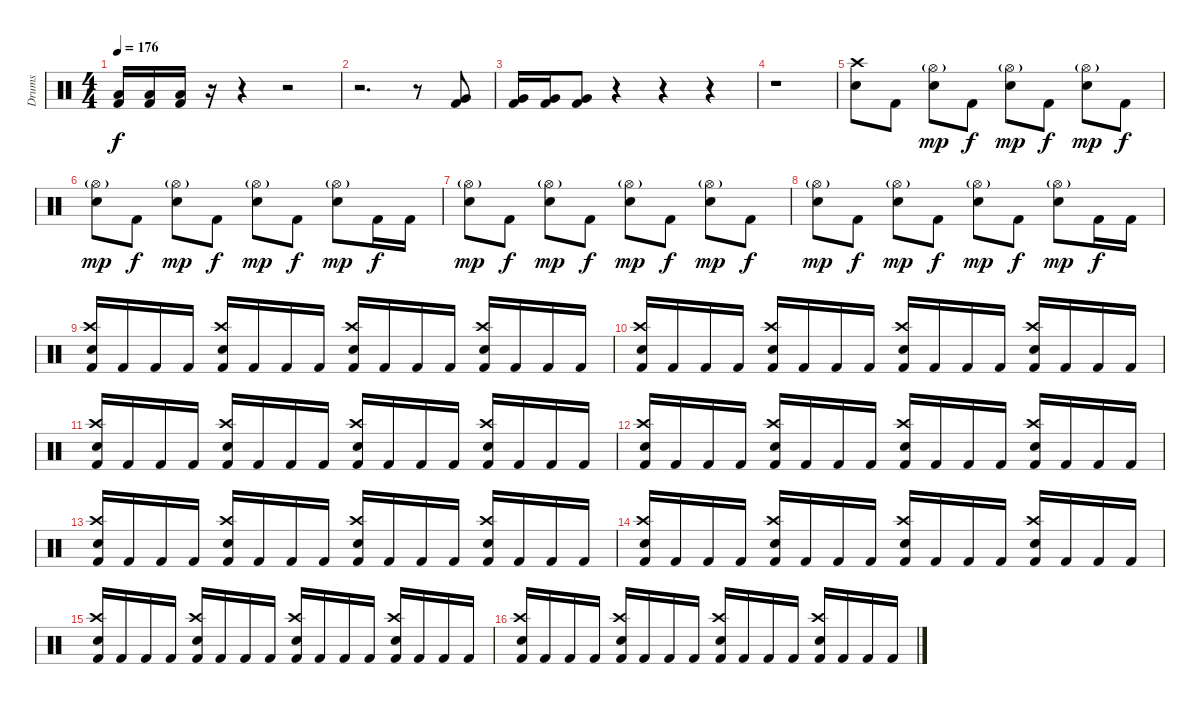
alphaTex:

\track ("Drums" "Drums") {instrument percussion}
\staff {score}
\articulation defaults
\ts (4 4)
\tempo 176
\clef neutral
\ks c
("Low Tom (hit)" "Kick (hit) 2").16{dy f} ("Low Tom (hit)" "Kick (hit) 2").16 ("Low Tom (hit)" "Kick (hit) 2").16 r.16 r.4 r.2 |
r.2{d} r.8 ("Very Low Tom (hit)" "Kick (hit) 2").8 |
("Very Low Tom (hit)" "Kick (hit) 2").16 ("Very Low Tom (hit)" "Kick (hit) 2").16 ("Very Low Tom (hit)" "Kick (hit) 2").8 r.4 r.4 r.4 |
r.1 |
("Crash high (hit)" "Electric Snare (hit)").8 "Kick (hit) 2".8 ("Hi-Hat (open)"{g} "Electric Snare (hit)").8{dy mp} "Kick (hit) 2".8{dy f} ("Hi-Hat (open)"{g} "Electric Snare (hit)").8{dy mp} "Kick (hit) 2".8{dy f} ("Hi-Hat (open)"{g} "Electric Snare (hit)").8{dy mp} "Kick (hit) 2".8{dy f} |
("Hi-Hat (open)"{g} "Electric Snare (hit)").8{dy mp} "Kick (hit) 2".8{dy f} ("Hi-Hat (open)"{g} "Electric Snare (hit)").8{dy mp} "Kick (hit) 2".8{dy f} ("Hi-Hat (open)"{g} "Electric Snare (hit)").8{dy mp} "Kick (hit) 2".8{dy f} ("Hi-Hat (open)"{g} "Electric Snare (hit)").8{dy mp} "Kick (hit) 2".16{dy f} "Kick (hit) 2".16 |
("Hi-Hat (open)"{g} "Electric Snare (hit)").8{dy mp} "Kick (hit) 2".8{dy f} ("Hi-Hat (open)"{g} "Electric Snare (hit)").8{dy mp} "Kick (hit) 2".8{dy f} ("Hi-Hat (open)"{g} "Electric Snare (hit)").8{dy mp} "Kick (hit) 2".8{dy f} ("Hi-Hat (open)"{g} "Electric Snare (hit)").8{dy mp} "Kick (hit) 2".8{dy f} |
("Hi-Hat (open)"{g} "Electric Snare (hit)").8{dy mp} "Kick (hit) 2".8{dy f} ("Hi-Hat (open)"{g} "Electric Snare (hit)").8{dy mp} "Kick (hit) 2".8{dy f} ("Hi-Hat (open)"{g} "Electric Snare (hit)").8{dy mp} "Kick (hit) 2".8{dy f} ("Hi-Hat (open)"{g} "Electric Snare (hit)").8{dy mp} "Kick (hit) 2".16{dy f} "Kick (hit) 2".16 |
("Crash high (hit)" "Electric Snare (hit)" "Kick (hit) 2").16 "Kick (hit) 2".16 "Kick (hit) 2".16 "Kick (hit) 2".16 ("Crash high (hit)" "Electric Snare (hit)" "Kick (hit) 2").16 "Kick (hit) 2".16 "Kick (hit) 2".16 "Kick (hit) 2".16 ("Crash high (hit)" "Electric Snare (hit)" "Kick (hit) 2").16 "Kick (hit) 2".16 "Kick (hit) 2".16 "Kick (hit) 2".16 ("Crash high (hit)" "Electric Snare (hit)" "Kick (hit) 2").16 "Kick (hit) 2".16 "Kick (hit) 2".16 "Kick (hit) 2".16 |
("Crash high (hit)" "Electric Snare (hit)" "Kick (hit) 2").16 "Kick (hit) 2".16 "Kick (hit) 2".16 "Kick (hit) 2".16 ("Crash high (hit)" "Electric Snare (hit)" "Kick (hit) 2").16 "Kick (hit) 2".16 "Kick (hit) 2".16 "Kick (hit) 2".16 ("Crash high (hit)" "Electric Snare (hit)" "Kick (hit) 2").16 "Kick (hit) 2".16 "Kick (hit) 2".16 "Kick (hit) 2".16 ("Crash high (hit)" "Electric Snare (hit)" "Kick (hit) 2").16 "Kick (hit) 2".16 "Kick (hit) 2".16 "Kick (hit) 2".16 |
("Crash high (hit)" "Electric Snare (hit)" "Kick (hit) 2").16 "Kick (hit) 2".16 "Kick (hit) 2".16 "Kick (hit) 2".16 ("Crash high (hit)" "Electric Snare (hit)" "Kick (hit) 2").16 "Kick (hit) 2".16 "Kick (hit) 2".16 "Kick (hit) 2".16 ("Crash high (hit)" "Electric Snare (hit)" "Kick (hit) 2").16 "Kick (hit) 2".16 "Kick (hit) 2".16 "Kick (hit) 2".16 ("Crash high (hit)" "Electric Snare (hit)" "Kick (hit) 2").16 "Kick (hit) 2".16 "Kick (hit) 2".16 "Kick (hit) 2".16 |
("Crash high (hit)" "Electric Snare (hit)" "Kick (hit) 2").16 "Kick (hit) 2".16 "Kick (hit) 2".16 "Kick (hit) 2".16 ("Crash high (hit)" "Electric Snare (hit)" "Kick (hit) 2").16 "Kick (hit) 2".16 "Kick (hit) 2".16 "Kick (hit) 2".16 ("Crash high (hit)" "Electric Snare (hit)" "Kick (hit) 2").16 "Kick (hit) 2".16 "Kick (hit) 2".16 "Kick (hit) 2".16 ("Crash high (hit)" "Electric Snare (hit)" "Kick (hit) 2").16 "Kick (hit) 2".16 "Kick (hit) 2".16 "Kick (hit) 2".16 |
("Crash high (hit)" "Electric Snare (hit)" "Kick (hit) 2").16 "Kick (hit) 2".16 "Kick (hit) 2".16 "Kick (hit) 2".16 ("Crash high (hit)" "Electric Snare (hit)" "Kick (hit) 2").16 "Kick (hit) 2".16 "Kick (hit) 2".16 "Kick (hit) 2".16 ("Crash high (hit)" "Electric Snare (hit)" "Kick (hit) 2").16 "Kick (hit) 2".16 "Kick (hit) 2".16 "Kick (hit) 2".16 ("Crash high (hit)" "Electric Snare (hit)" "Kick (hit) 2").16 "Kick (hit) 2".16 "Kick (hit) 2".16 "Kick (hit) 2".16 |
("Crash high (hit)" "Electric Snare (hit)" "Kick (hit) 2").16 "Kick (hit) 2".16 "Kick (hit) 2".16 "Kick (hit) 2".16 ("Crash high (hit)" "Electric Snare (hit)" "Kick (hit) 2").16 "Kick (hit) 2".16 "Kick (hit) 2".16 "Kick (hit) 2".16 ("Crash high (hit)" "Electric Snare (hit)" "Kick (hit) 2").16 "Kick (hit) 2".16 "Kick (hit) 2".16 "Kick (hit) 2".16 ("Crash high (hit)" "Electric Snare (hit)" "Kick (hit) 2").16 "Kick (hit) 2".16 "Kick (hit) 2".16 "Kick (hit) 2".16 |
("Crash high (hit)" "Electric Snare (hit)" "Kick (hit) 2").16 "Kick (hit) 2".16 "Kick (hit) 2".16 "Kick (hit) 2".16 ("Crash high (hit)" "Electric Snare (hit)" "Kick (hit) 2").16 "Kick (hit) 2".16 "Kick (hit) 2".16 "Kick (hit) 2".16 ("Crash high (hit)" "Electric Snare (hit)" "Kick (hit) 2").16 "Kick (hit) 2".16 "Kick (hit) 2".16 "Kick (hit) 2".16 ("Crash high (hit)" "Electric Snare (hit)" "Kick (hit) 2").16 "Kick (hit) 2".16 "Kick (hit) 2".16 "Kick (hit) 2".16 |
("Crash high (hit)" "Electric Snare (hit)" "Kick (hit) 2").16 "Kick (hit) 2".16 "Kick (hit) 2".16 "Kick (hit) 2".16 ("Crash high (hit)" "Electric Snare (hit)" "Kick (hit) 2").16 "Kick (hit) 2".16 "Kick (hit) 2".16 "Kick (hit) 2".16 ("Crash high (hit)" "Electric Snare (hit)" "Kick (hit) 2").16 "Kick (hit) 2".16 "Kick (hit) 2".16 "Kick (hit) 2".16 ("Crash high (hit)" "Electric Snare (hit)" "Kick (hit) 2").16 "Kick (hit) 2".16 "Kick (hit) 2".16 "Kick (hit) 2".16
